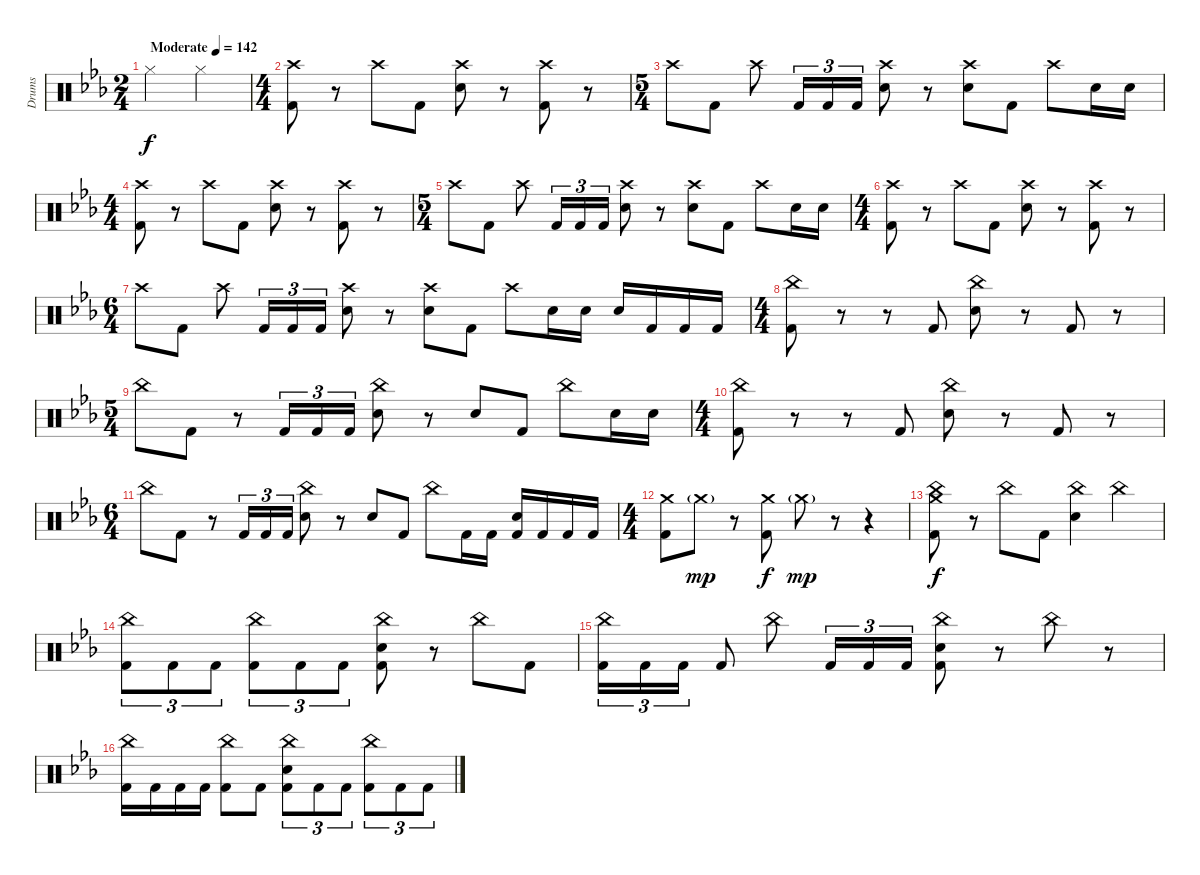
\track ("Drums" "Drums") {instrument percussion}
\staff {score}
\articulation defaults
\ts (2 4)
\tempo (142 "Moderate")
\clef neutral
\ks cminor "Hi-Hat (closed)".4{dy f} "Hi-Hat (closed)".4
|
\ts (4 4)
("Crash high (hit)" "Kick (hit) 2").8 r.8 "Crash high (hit)".8 "Kick (hit) 2".8 ("Crash high (hit)" "Electric Snare (hit)").8 r.8 ("Crash high (hit)" "Kick (hit) 2").8 r.8 |
\ts (5 4)
"Crash high (hit)".8 "Kick (hit) 2".8 "Crash high (hit)".8 "Kick (hit) 2".16{tu (3 2)} "Kick (hit) 2".16{tu (3 2)} "Kick (hit) 2".16{tu (3 2)} ("Crash high (hit)" "Electric Snare (hit)").8 r.8 ("Crash high (hit)" "Electric Snare (hit)").8 "Kick (hit) 2".8 "Crash high (hit)".8 "Electric Snare (hit)".16 "Electric Snare (hit)".16 |
\ts (4 4)
("Crash high (hit)" "Kick (hit) 2").8 r.8 "Crash high (hit)".8 "Kick (hit) 2".8 ("Crash high (hit)" "Electric Snare (hit)").8 r.8 ("Crash high (hit)" "Kick (hit) 2").8 r.8 |
\ts (5 4)
"Crash high (hit)".8 "Kick (hit) 2".8 "Crash high (hit)".8 "Kick (hit) 2".16{tu (3 2)} "Kick (hit) 2".16{tu (3 2)} "Kick (hit) 2".16{tu (3 2)} ("Crash high (hit)" "Electric Snare (hit)").8 r.8 ("Crash high (hit)" "Electric Snare (hit)").8 "Kick (hit) 2".8 "Crash high (hit)".8 "Electric Snare (hit)".16 "Electric Snare (hit)".16 |
\ts (4 4)
("Crash high (hit)" "Kick (hit) 2").8 r.8 "Crash high (hit)".8 "Kick (hit) 2".8 ("Crash high (hit)" "Electric Snare (hit)").8 r.8 ("Crash high (hit)" "Kick (hit) 2").8 r.8 |
\ts (6 4)
"Crash high (hit)".8 "Kick (hit) 2".8 "Crash high (hit)".8 "Kick (hit) 2".16{tu (3 2)} "Kick (hit) 2".16{tu (3 2)} "Kick (hit) 2".16{tu (3 2)} ("Crash high (hit)" "Electric Snare (hit)").8 r.8 ("Crash high (hit)" "Electric Snare (hit)").8 "Kick (hit) 2".8 "Crash high (hit)".8 "Electric Snare (hit)".16 "Electric Snare (hit)".16 "Electric Snare (hit)".16 "Kick (hit) 2".16 "Kick (hit) 2".16 "Kick (hit) 2".16 |
\ts (4 4)
("China (hit)" "Kick (hit) 2").8 r.8 r.8 "Kick (hit) 2".8 ("China (hit)" "Electric Snare (hit)").8 r.8 "Kick (hit) 2".8 r.8 |
\ts (5 4)
"China (hit)".8 "Kick (hit) 2".8 r.8 "Kick (hit) 2".16{tu (3 2)} "Kick (hit) 2".16{tu (3 2)} "Kick (hit) 2".16{tu (3 2)} ("China (hit)" "Electric Snare (hit)").8 r.8 "Electric Snare (hit)".8 "Kick (hit) 2".8 "China (hit)".8 "Electric Snare (hit)".16 "Electric Snare (hit)".16 |
\ts (4 4)
("China (hit)" "Kick (hit) 2").8 r.8 r.8 "Kick (hit) 2".8 ("China (hit)" "Electric Snare (hit)").8 r.8 "Kick (hit) 2".8 r.8 |
\ts (6 4)
"China (hit)".8 "Kick (hit) 2".8 r.8 "Kick (hit) 2".16{tu (3 2)} "Kick (hit) 2".16{tu (3 2)} "Kick (hit) 2".16{tu (3 2)} ("China (hit)" "Electric Snare (hit)").8 r.8 "Electric Snare (hit)".8 "Kick (hit) 2".8 "China (hit)".8 "Kick (hit) 2".16 "Kick (hit) 2".16 ("Electric Snare (hit)" "Kick (hit) 2").16 "Kick (hit) 2".16 "Kick (hit) 2".16 "Kick (hit) 2".16 |
\ts (4 4)
("Crash medium (hit)" "Kick (hit) 2").8 "Crash medium (hit)"{g}.8{dy mp} r.8 ("Crash medium (hit)" "Kick (hit) 2").8{dy f} "Crash medium (hit)"{g}.8{dy mp} r.8 r.4 |
("Crash medium (hit)" "China (hit)" "Kick (hit) 2").8{dy f} r.8 "China (hit)".8 "Kick (hit) 2".8 ("China (hit)" "Electric Snare (hit)").4 "China (hit)".4 |
("China (hit)" "Kick (hit) 2").8{tu (3 2)} "Kick (hit) 2".8{tu (3 2)} "Kick (hit) 2".8{tu (3 2)} ("China (hit)" "Kick (hit) 2").8{tu (3 2)} "Kick (hit) 2".8{tu (3 2)} "Kick (hit) 2".8{tu (3 2)} ("China (hit)" "Electric Snare (hit)" "Kick (hit) 2").8 r.8 "China (hit)".8 "Kick (hit) 2".8 |
("China (hit)" "Kick (hit) 2").16{tu (3 2)} "Kick (hit) 2".16{tu (3 2)} "Kick (hit) 2".16{tu (3 2)} "Kick (hit) 2".8 "China (hit)".8 "Kick (hit) 2".16{tu (3 2)} "Kick (hit) 2".16{tu (3 2)} "Kick (hit) 2".16{tu (3 2)} ("China (hit)" "Electric Snare (hit)" "Kick (hit) 2").8 r.8 "China (hit)".8 r.8 |
("China (hit)" "Kick (hit) 2").16 "Kick (hit) 2".16 "Kick (hit) 2".16 "Kick (hit) 2".16 ("China (hit)" "Kick (hit) 2").8 "Kick (hit) 2".8 ("China (hit)" "Electric Snare (hit)" "Kick (hit) 2").8{tu (3 2)} "Kick (hit) 2".8{tu (3 2)} "Kick (hit) 2".8{tu (3 2)} ("China (hit)" "Kick (hit) 2").8{tu (3 2)} "Kick (hit) 2".8{tu (3 2)} "Kick (hit) 2".8{tu (3 2)}
